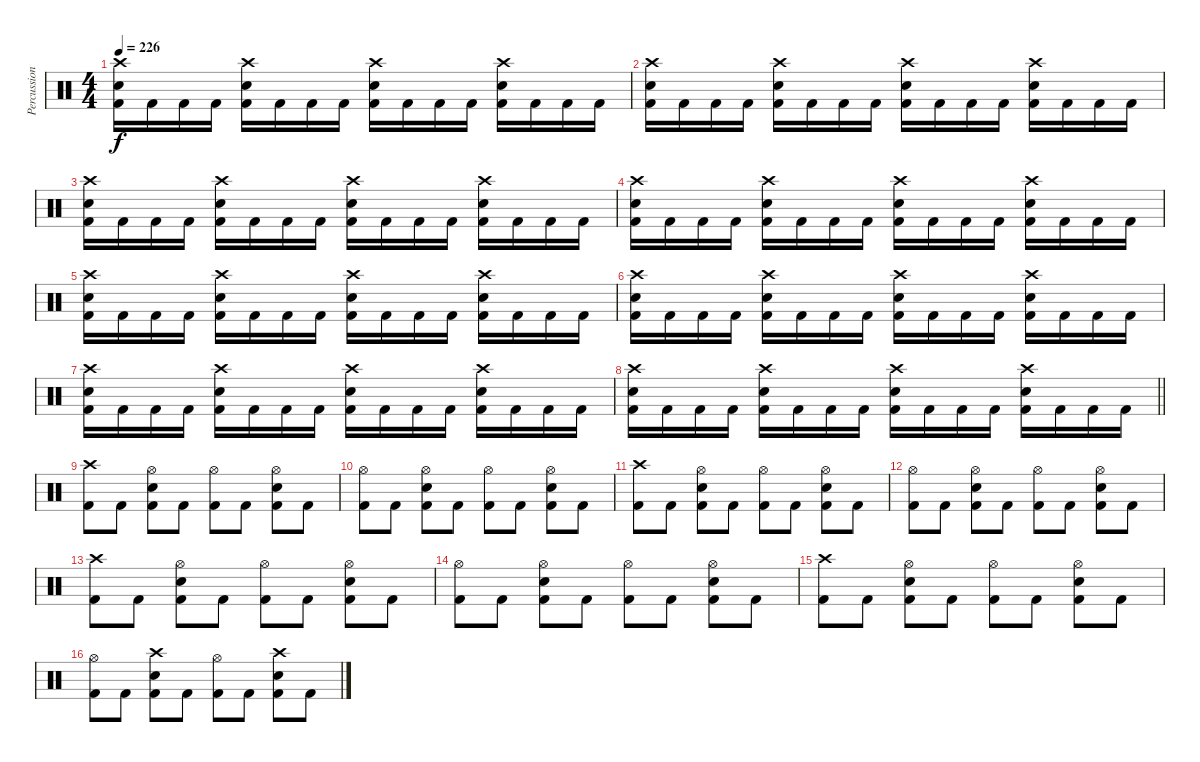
\track ("Percussion" "Percussion") {instrument percussion}
\staff {score}
\articulation defaults
\ts (4 4)
\tempo 226
\clef neutral
\ks c
("Crash high (hit)" "Snare (hit) 2" "Kick (hit) 2").16{dy f} "Kick (hit) 2".16 "Kick (hit) 2".16 "Kick (hit) 2".16 ("Crash high (hit)" "Snare (hit) 2" "Kick (hit) 2").16 "Kick (hit) 2".16 "Kick (hit) 2".16 "Kick (hit) 2".16 ("Crash high (hit)" "Snare (hit) 2" "Kick (hit) 2").16 "Kick (hit) 2".16 "Kick (hit) 2".16 "Kick (hit) 2".16 ("Crash high (hit)" "Snare (hit) 2" "Kick (hit) 2").16 "Kick (hit) 2".16 "Kick (hit) 2".16 "Kick (hit) 2".16 |
("Crash high (hit)" "Snare (hit) 2" "Kick (hit) 2").16 "Kick (hit) 2".16 "Kick (hit) 2".16 "Kick (hit) 2".16 ("Crash high (hit)" "Snare (hit) 2" "Kick (hit) 2").16 "Kick (hit) 2".16 "Kick (hit) 2".16 "Kick (hit) 2".16 ("Crash high (hit)" "Snare (hit) 2" "Kick (hit) 2").16 "Kick (hit) 2".16 "Kick (hit) 2".16 "Kick (hit) 2".16 ("Crash high (hit)" "Snare (hit) 2" "Kick (hit) 2").16 "Kick (hit) 2".16 "Kick (hit) 2".16 "Kick (hit) 2".16 |
("Crash high (hit)" "Snare (hit) 2" "Kick (hit) 2").16 "Kick (hit) 2".16 "Kick (hit) 2".16 "Kick (hit) 2".16 ("Crash high (hit)" "Snare (hit) 2" "Kick (hit) 2").16 "Kick (hit) 2".16 "Kick (hit) 2".16 "Kick (hit) 2".16 ("Crash high (hit)" "Snare (hit) 2" "Kick (hit) 2").16 "Kick (hit) 2".16 "Kick (hit) 2".16 "Kick (hit) 2".16 ("Crash high (hit)" "Snare (hit) 2" "Kick (hit) 2").16 "Kick (hit) 2".16 "Kick (hit) 2".16 "Kick (hit) 2".16 |
("Crash high (hit)" "Snare (hit) 2" "Kick (hit) 2").16 "Kick (hit) 2".16 "Kick (hit) 2".16 "Kick (hit) 2".16 ("Crash high (hit)" "Snare (hit) 2" "Kick (hit) 2").16 "Kick (hit) 2".16 "Kick (hit) 2".16 "Kick (hit) 2".16 ("Crash high (hit)" "Snare (hit) 2" "Kick (hit) 2").16 "Kick (hit) 2".16 "Kick (hit) 2".16 "Kick (hit) 2".16 ("Crash high (hit)" "Snare (hit) 2" "Kick (hit) 2").16 "Kick (hit) 2".16 "Kick (hit) 2".16 "Kick (hit) 2".16 |
("Crash high (hit)" "Snare (hit) 2" "Kick (hit) 2").16 "Kick (hit) 2".16 "Kick (hit) 2".16 "Kick (hit) 2".16 ("Crash high (hit)" "Snare (hit) 2" "Kick (hit) 2").16 "Kick (hit) 2".16 "Kick (hit) 2".16 "Kick (hit) 2".16 ("Crash high (hit)" "Snare (hit) 2" "Kick (hit) 2").16 "Kick (hit) 2".16 "Kick (hit) 2".16 "Kick (hit) 2".16 ("Crash high (hit)" "Snare (hit) 2" "Kick (hit) 2").16 "Kick (hit) 2".16 "Kick (hit) 2".16 "Kick (hit) 2".16 |
("Crash high (hit)" "Snare (hit) 2" "Kick (hit) 2").16 "Kick (hit) 2".16 "Kick (hit) 2".16 "Kick (hit) 2".16 ("Crash high (hit)" "Snare (hit) 2" "Kick (hit) 2").16 "Kick (hit) 2".16 "Kick (hit) 2".16 "Kick (hit) 2".16 ("Crash high (hit)" "Snare (hit) 2" "Kick (hit) 2").16 "Kick (hit) 2".16 "Kick (hit) 2".16 "Kick (hit) 2".16 ("Crash high (hit)" "Snare (hit) 2" "Kick (hit) 2").16 "Kick (hit) 2".16 "Kick (hit) 2".16 "Kick (hit) 2".16 |
("Crash high (hit)" "Snare (hit) 2" "Kick (hit) 2").16 "Kick (hit) 2".16 "Kick (hit) 2".16 "Kick (hit) 2".16 ("Crash high (hit)" "Snare (hit) 2" "Kick (hit) 2").16 "Kick (hit) 2".16 "Kick (hit) 2".16 "Kick (hit) 2".16 ("Crash high (hit)" "Snare (hit) 2" "Kick (hit) 2").16 "Kick (hit) 2".16 "Kick (hit) 2".16 "Kick (hit) 2".16 ("Crash high (hit)" "Snare (hit) 2" "Kick (hit) 2").16 "Kick (hit) 2".16 "Kick (hit) 2".16 "Kick (hit) 2".16 |
\barLineRight lightlight
("Crash high (hit)" "Snare (hit) 2" "Kick (hit) 2").16 "Kick (hit) 2".16 "Kick (hit) 2".16 "Kick (hit) 2".16 ("Crash high (hit)" "Snare (hit) 2" "Kick (hit) 2").16 "Kick (hit) 2".16 "Kick (hit) 2".16 "Kick (hit) 2".16 ("Crash high (hit)" "Snare (hit) 2" "Kick (hit) 2").16 "Kick (hit) 2".16 "Kick (hit) 2".16 "Kick (hit) 2".16 ("Crash high (hit)" "Snare (hit) 2" "Kick (hit) 2").16 "Kick (hit) 2".16 "Kick (hit) 2".16 "Kick (hit) 2".16 |
\section ("" "")
("Crash high (hit)" "Kick (hit) 2").8 "Kick (hit) 2".8 ("Hi-Hat (open)" "Snare (hit) 2" "Kick (hit) 2").8 "Kick (hit) 2".8 ("Hi-Hat (open)" "Kick (hit) 2").8 "Kick (hit) 2".8 ("Hi-Hat (open)" "Snare (hit) 2" "Kick (hit) 2").8 "Kick (hit) 2".8 |
("Hi-Hat (open)" "Kick (hit) 2").8 "Kick (hit) 2".8 ("Hi-Hat (open)" "Snare (hit) 2" "Kick (hit) 2").8 "Kick (hit) 2".8 ("Hi-Hat (open)" "Kick (hit) 2").8 "Kick (hit) 2".8 ("Hi-Hat (open)" "Snare (hit) 2" "Kick (hit) 2").8 "Kick (hit) 2".8 |
("Crash high (hit)" "Kick (hit) 2").8 "Kick (hit) 2".8 ("Hi-Hat (open)" "Snare (hit) 2" "Kick (hit) 2").8 "Kick (hit) 2".8 ("Hi-Hat (open)" "Kick (hit) 2").8 "Kick (hit) 2".8 ("Hi-Hat (open)" "Snare (hit) 2" "Kick (hit) 2").8 "Kick (hit) 2".8 |
("Hi-Hat (open)" "Kick (hit) 2").8 "Kick (hit) 2".8 ("Hi-Hat (open)" "Snare (hit) 2" "Kick (hit) 2").8 "Kick (hit) 2".8 ("Hi-Hat (open)" "Kick (hit) 2").8 "Kick (hit) 2".8 ("Hi-Hat (open)" "Snare (hit) 2" "Kick (hit) 2").8 "Kick (hit) 2".8 |
("Crash high (hit)" "Kick (hit) 2").8 "Kick (hit) 2".8 ("Hi-Hat (open)" "Snare (hit) 2" "Kick (hit) 2").8 "Kick (hit) 2".8 ("Hi-Hat (open)" "Kick (hit) 2").8 "Kick (hit) 2".8 ("Hi-Hat (open)" "Snare (hit) 2" "Kick (hit) 2").8 "Kick (hit) 2".8 |
("Hi-Hat (open)" "Kick (hit) 2").8 "Kick (hit) 2".8 ("Hi-Hat (open)" "Snare (hit) 2" "Kick (hit) 2").8 "Kick (hit) 2".8 ("Hi-Hat (open)" "Kick (hit) 2").8 "Kick (hit) 2".8 ("Hi-Hat (open)" "Snare (hit) 2" "Kick (hit) 2").8 "Kick (hit) 2".8 |
("Crash high (hit)" "Kick (hit) 2").8 "Kick (hit) 2".8 ("Hi-Hat (open)" "Snare (hit) 2" "Kick (hit) 2").8 "Kick (hit) 2".8 ("Hi-Hat (open)" "Kick (hit) 2").8 "Kick (hit) 2".8 ("Hi-Hat (open)" "Snare (hit) 2" "Kick (hit) 2").8 "Kick (hit) 2".8 |
("Hi-Hat (open)" "Kick (hit) 2").8 "Kick (hit) 2".8 ("Crash high (hit)" "Snare (hit) 2" "Kick (hit) 2").8 "Kick (hit) 2".8 ("Hi-Hat (open)" "Kick (hit) 2").8 "Kick (hit) 2".8 ("Crash high (hit)" "Snare (hit) 2" "Kick (hit) 2").8 "Kick (hit) 2".8
